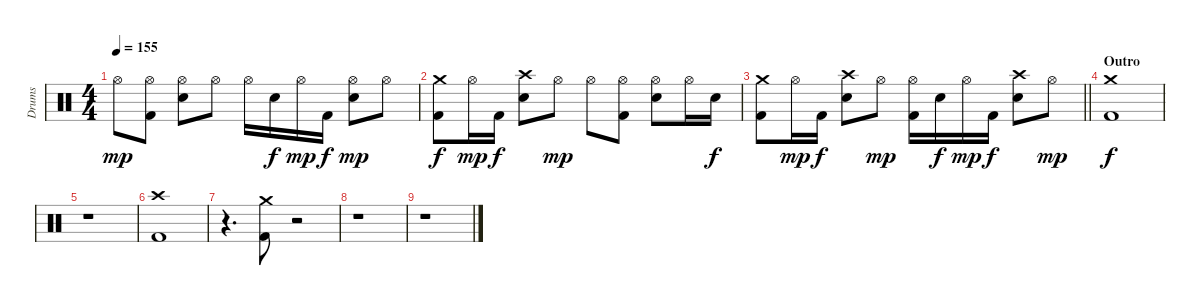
\track ("Drums" "Drums") {instrument percussion}
\staff {score}
\articulation defaults
\ts (4 4)
\tempo 155
\clef neutral
\ks c "Hi-Hat (open)".8{dy mp}
("Hi-Hat (open)" "Kick (hit) 2").8 ("Hi-Hat (open)" "Snare (hit) 2").8 "Hi-Hat (open)".8 "Hi-Hat (open)".16 "Snare (hit) 2".16{dy f} "Hi-Hat (open)".16{dy mp} "Kick (hit) 2".16{dy f} ("Hi-Hat (open)" "Snare (hit) 2").8{dy mp} "Hi-Hat (open)".8 |
("Crash medium (hit)" "Kick (hit) 2").8{dy f} "Hi-Hat (open)".16{dy mp} "Kick (hit) 2".16{dy f} ("Crash high (hit)" "Snare (hit) 2").8 "Hi-Hat (open)".8{dy mp} "Hi-Hat (open)".8 ("Hi-Hat (open)" "Kick (hit) 2").8 ("Hi-Hat (open)" "Snare (hit) 2").8 "Hi-Hat (open)".16 "Snare (hit) 2".16{dy f} |
\barLineRight lightlight
("Crash medium (hit)" "Kick (hit) 2").8 "Hi-Hat (open)".16{dy mp} "Kick (hit) 2".16{dy f} ("Crash high (hit)" "Snare (hit) 2").8 "Hi-Hat (open)".8{dy mp} ("Hi-Hat (open)" "Kick (hit) 2").16 "Snare (hit) 2".16{dy f} "Hi-Hat (open)".16{dy mp} "Kick (hit) 2".16{dy f} ("Crash high (hit)" "Snare (hit) 2").8 "Hi-Hat (open)".8{dy mp} |
\section ("" "Outro")
("Crash medium (hit)" "Kick (hit) 2").1{dy f} |
r.1 |
("Crash high (hit)" "Kick (hit) 2").1 |
r.4{d} ("Crash medium (hit)" "Kick (hit) 2").8 r.2 |
r.1 |
r.1
